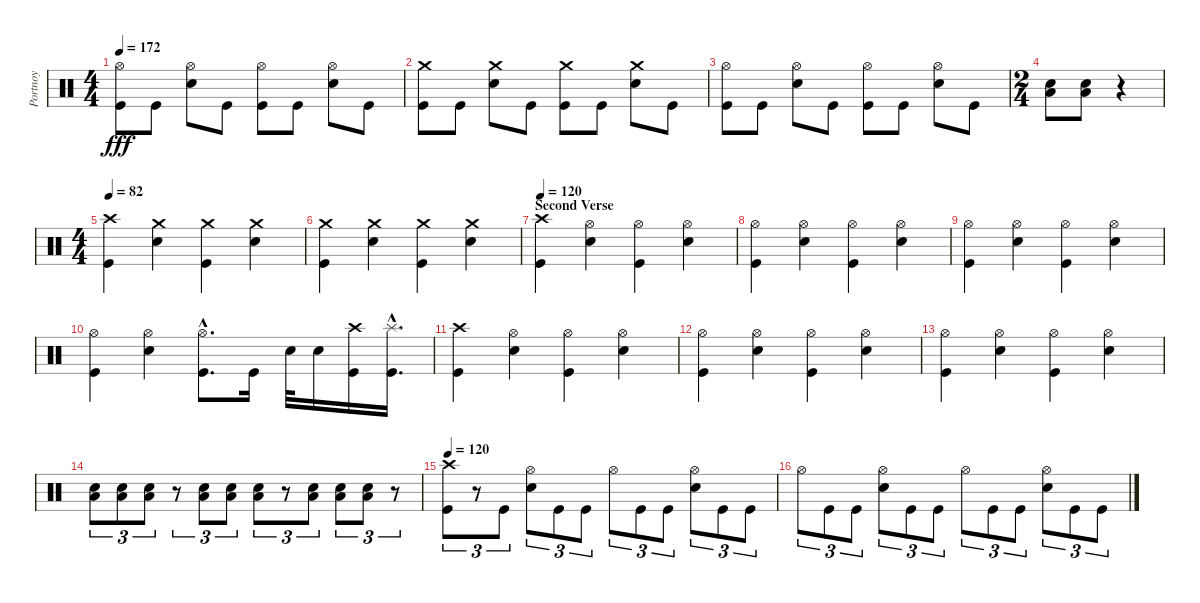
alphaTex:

\track ("Portnoy" "Portnoy") {instrument percussion}
\staff {score}
\articulation defaults
\ts (4 4)
\tempo 172
\clef neutral
\ks c
("Hi-Hat (open)" "Kick (hit)").8{dy fff} "Kick (hit)".8 ("Hi-Hat (open)" "Snare (hit) 2").8 "Kick (hit)".8 ("Hi-Hat (open)" "Kick (hit)").8 "Kick (hit)".8 ("Hi-Hat (open)" "Snare (hit) 2").8 "Kick (hit)".8 |
("Crash medium (hit)" "Kick (hit)").8 "Kick (hit)".8 ("Crash medium (hit)" "Snare (hit) 2").8 "Kick (hit)".8 ("Crash medium (hit)" "Kick (hit)").8 "Kick (hit)".8 ("Crash medium (hit)" "Snare (hit) 2").8 "Kick (hit)".8 |
("Hi-Hat (open)" "Kick (hit)").8 "Kick (hit)".8 ("Hi-Hat (open)" "Snare (hit) 2").8 "Kick (hit)".8 ("Hi-Hat (open)" "Kick (hit)").8 "Kick (hit)".8 ("Hi-Hat (open)" "Snare (hit) 2").8 "Kick (hit)".8 |
\ts (2 4)
("Snare (hit) 2" "Low Floor Tom (hit)").8 ("Snare (hit) 2" "Low Floor Tom (hit)").8 r.4 |
\ts (4 4)
\tempo 82
("Crash high (hit)" "Kick (hit)").4 ("Crash medium (hit)" "Snare (hit) 2").4 ("Crash medium (hit)" "Kick (hit)").4 ("Crash medium (hit)" "Snare (hit) 2").4 |
("Crash medium (hit)" "Kick (hit)").4 ("Crash medium (hit)" "Snare (hit) 2").4 ("Crash medium (hit)" "Kick (hit)").4 ("Crash medium (hit)" "Snare (hit) 2").4 |
\section ("" "Second Verse")
\tempo 120
("Crash high (hit)" "Kick (hit)").4 ("Hi-Hat (open)" "Snare (hit) 2").4 ("Hi-Hat (open)" "Kick (hit)").4 ("Hi-Hat (open)" "Snare (hit) 2").4 |
("Hi-Hat (open)" "Kick (hit)").4 ("Hi-Hat (open)" "Snare (hit) 2").4 ("Hi-Hat (open)" "Kick (hit)").4 ("Hi-Hat (open)" "Snare (hit) 2").4 |
("Hi-Hat (open)" "Kick (hit)").4 ("Hi-Hat (open)" "Snare (hit) 2").4 ("Hi-Hat (open)" "Kick (hit)").4 ("Hi-Hat (open)" "Snare (hit) 2").4 |
("Hi-Hat (open)" "Kick (hit)").4 ("Hi-Hat (open)" "Snare (hit) 2").4 ("Hi-Hat (open)"{hac} "Kick (hit)"{hac}).8{d} "Kick (hit)".16 "Snare (hit) 2".32 "Snare (hit) 2".16 ("Crash high (hit)" "Kick (hit)").16 ("Splash (hit)"{hac} "Kick (hit)"{hac}).16{d} |
("Crash high (hit)" "Kick (hit)").4 ("Hi-Hat (open)" "Snare (hit) 2").4 ("Hi-Hat (open)" "Kick (hit)").4 ("Hi-Hat (open)" "Snare (hit) 2").4 |
("Hi-Hat (open)" "Kick (hit)").4 ("Hi-Hat (open)" "Snare (hit) 2").4 ("Hi-Hat (open)" "Kick (hit)").4 ("Hi-Hat (open)" "Snare (hit) 2").4 |
("Hi-Hat (open)" "Kick (hit)").4 ("Hi-Hat (open)" "Snare (hit) 2").4 ("Hi-Hat (open)" "Kick (hit)").4 ("Hi-Hat (open)" "Snare (hit) 2").4 |
("Low Floor Tom (hit)" "Snare (hit) 2").8{tu (3 2)} ("Low Floor Tom (hit)" "Snare (hit) 2").8{tu (3 2)} ("Low Floor Tom (hit)" "Snare (hit) 2").8{tu (3 2)} r.8{tu (3 2)} ("Low Floor Tom (hit)" "Snare (hit) 2").8{tu (3 2)} ("Low Floor Tom (hit)" "Snare (hit) 2").8{tu (3 2)} ("Low Floor Tom (hit)" "Snare (hit) 2").8{tu (3 2)} r.8{tu (3 2)} ("Low Floor Tom (hit)" "Snare (hit) 2").8{tu (3 2)} ("Low Floor Tom (hit)" "Snare (hit) 2").8{tu (3 2)} ("Low Floor Tom (hit)" "Snare (hit) 2").8{tu (3 2)} r.8{tu (3 2)} |
\tempo 120
("Crash high (hit)" "Kick (hit)").8{tu (3 2)} r.8{tu (3 2)} "Kick (hit)".8{tu (3 2)} ("Hi-Hat (open)" "Snare (hit) 2").8{tu (3 2)} "Kick (hit)".8{tu (3 2)} "Kick (hit)".8{tu (3 2)} "Hi-Hat (open)".8{tu (3 2)} "Kick (hit)".8{tu (3 2)} "Kick (hit)".8{tu (3 2)} ("Hi-Hat (open)" "Snare (hit) 2").8{tu (3 2)} "Kick (hit)".8{tu (3 2)} "Kick (hit)".8{tu (3 2)} |
"Hi-Hat (open)".8{tu (3 2)} "Kick (hit)".8{tu (3 2)} "Kick (hit)".8{tu (3 2)} ("Hi-Hat (open)" "Snare (hit) 2").8{tu (3 2)} "Kick (hit)".8{tu (3 2)} "Kick (hit)".8{tu (3 2)} "Hi-Hat (open)".8{tu (3 2)} "Kick (hit)".8{tu (3 2)} "Kick (hit)".8{tu (3 2)} ("Hi-Hat (open)" "Snare (hit) 2").8{tu (3 2)} "Kick (hit)".8{tu (3 2)} "Kick (hit)".8{tu (3 2)}
